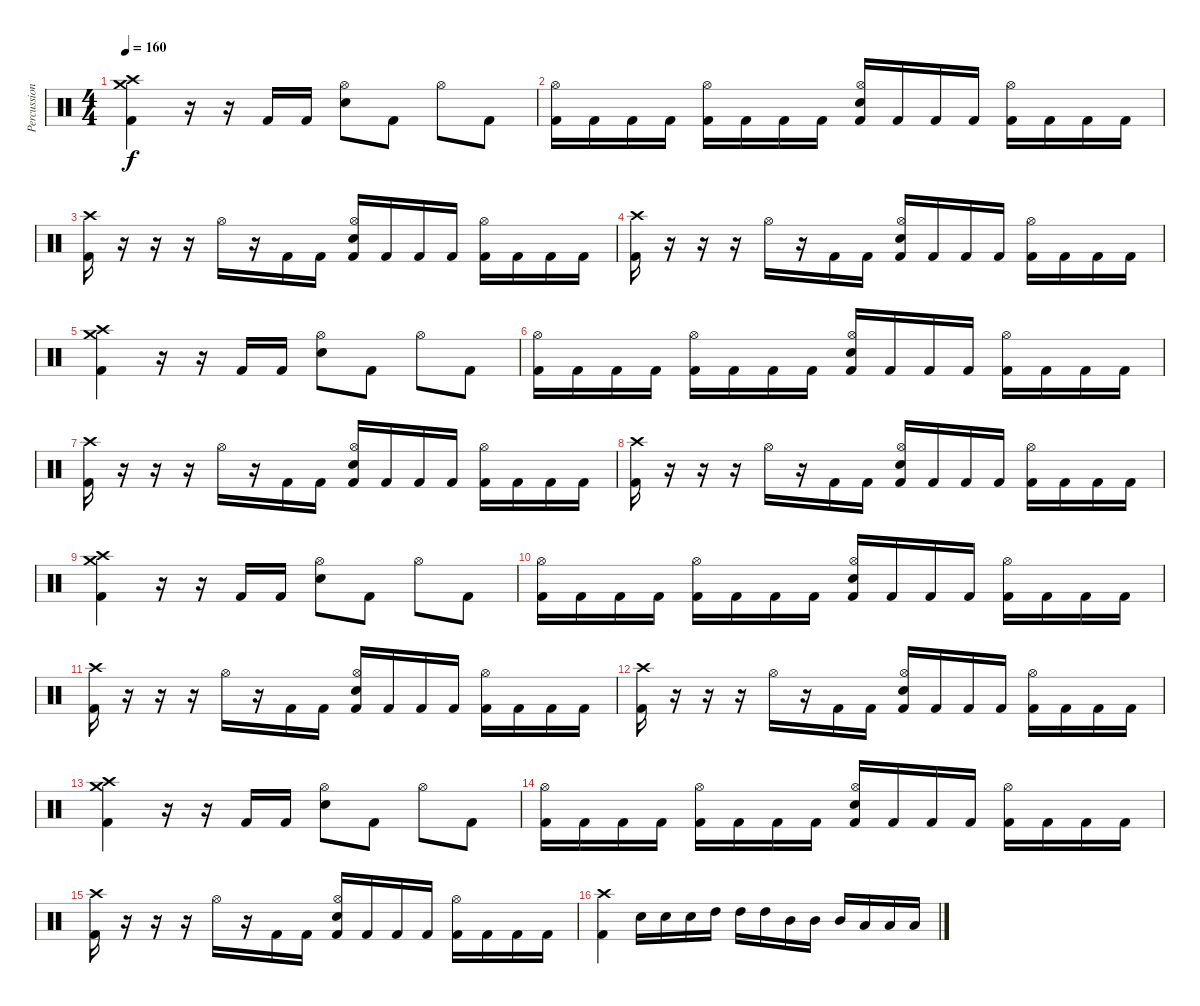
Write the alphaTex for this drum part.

\track ("Percussions" "Percussion") {instrument percussion}
\staff {score}
\articulation defaults
\ts (4 4)
\tempo 160
\clef neutral
\ks c
("Crash medium (hit)" "Crash high (hit)" "Kick (hit) 2").4{dy f} r.16 r.16 "Kick (hit) 2".16 "Kick (hit) 2".16 ("Hi-Hat (open)" "Electric Snare (hit)").8 "Kick (hit) 2".8 "Hi-Hat (open)".8 "Kick (hit) 2".8 |
("Hi-Hat (open)" "Kick (hit) 2").16 "Kick (hit) 2".16 "Kick (hit) 2".16 "Kick (hit) 2".16 ("Hi-Hat (open)" "Kick (hit) 2").16 "Kick (hit) 2".16 "Kick (hit) 2".16 "Kick (hit) 2".16 ("Hi-Hat (open)" "Electric Snare (hit)" "Kick (hit) 2").16 "Kick (hit) 2".16 "Kick (hit) 2".16 "Kick (hit) 2".16 ("Hi-Hat (open)" "Kick (hit) 2").16 "Kick (hit) 2".16 "Kick (hit) 2".16 "Kick (hit) 2".16 |
("Crash high (hit)" "Kick (hit) 2").16 r.16 r.16 r.16 "Hi-Hat (open)".16 r.16 "Kick (hit) 2".16 "Kick (hit) 2".16 ("Hi-Hat (open)" "Electric Snare (hit)" "Kick (hit) 2").16 "Kick (hit) 2".16 "Kick (hit) 2".16 "Kick (hit) 2".16 ("Hi-Hat (open)" "Kick (hit) 2").16 "Kick (hit) 2".16 "Kick (hit) 2".16 "Kick (hit) 2".16 |
("Crash high (hit)" "Kick (hit) 2").16 r.16 r.16 r.16 "Hi-Hat (open)".16 r.16 "Kick (hit) 2".16 "Kick (hit) 2".16 ("Hi-Hat (open)" "Electric Snare (hit)" "Kick (hit) 2").16 "Kick (hit) 2".16 "Kick (hit) 2".16 "Kick (hit) 2".16 ("Hi-Hat (open)" "Kick (hit) 2").16 "Kick (hit) 2".16 "Kick (hit) 2".16 "Kick (hit) 2".16 |
("Crash medium (hit)" "Crash high (hit)" "Kick (hit) 2").4 r.16 r.16 "Kick (hit) 2".16 "Kick (hit) 2".16 ("Hi-Hat (open)" "Electric Snare (hit)").8 "Kick (hit) 2".8 "Hi-Hat (open)".8 "Kick (hit) 2".8 |
("Hi-Hat (open)" "Kick (hit) 2").16 "Kick (hit) 2".16 "Kick (hit) 2".16 "Kick (hit) 2".16 ("Hi-Hat (open)" "Kick (hit) 2").16 "Kick (hit) 2".16 "Kick (hit) 2".16 "Kick (hit) 2".16 ("Hi-Hat (open)" "Electric Snare (hit)" "Kick (hit) 2").16 "Kick (hit) 2".16 "Kick (hit) 2".16 "Kick (hit) 2".16 ("Hi-Hat (open)" "Kick (hit) 2").16 "Kick (hit) 2".16 "Kick (hit) 2".16 "Kick (hit) 2".16 |
("Crash high (hit)" "Kick (hit) 2").16 r.16 r.16 r.16 "Hi-Hat (open)".16 r.16 "Kick (hit) 2".16 "Kick (hit) 2".16 ("Hi-Hat (open)" "Electric Snare (hit)" "Kick (hit) 2").16 "Kick (hit) 2".16 "Kick (hit) 2".16 "Kick (hit) 2".16 ("Hi-Hat (open)" "Kick (hit) 2").16 "Kick (hit) 2".16 "Kick (hit) 2".16 "Kick (hit) 2".16 |
("Crash high (hit)" "Kick (hit) 2").16 r.16 r.16 r.16 "Hi-Hat (open)".16 r.16 "Kick (hit) 2".16 "Kick (hit) 2".16 ("Hi-Hat (open)" "Electric Snare (hit)" "Kick (hit) 2").16 "Kick (hit) 2".16 "Kick (hit) 2".16 "Kick (hit) 2".16 ("Hi-Hat (open)" "Kick (hit) 2").16 "Kick (hit) 2".16 "Kick (hit) 2".16 "Kick (hit) 2".16 |
("Crash medium (hit)" "Crash high (hit)" "Kick (hit) 2").4 r.16 r.16 "Kick (hit) 2".16 "Kick (hit) 2".16 ("Hi-Hat (open)" "Electric Snare (hit)").8 "Kick (hit) 2".8 "Hi-Hat (open)".8 "Kick (hit) 2".8 |
("Hi-Hat (open)" "Kick (hit) 2").16 "Kick (hit) 2".16 "Kick (hit) 2".16 "Kick (hit) 2".16 ("Hi-Hat (open)" "Kick (hit) 2").16 "Kick (hit) 2".16 "Kick (hit) 2".16 "Kick (hit) 2".16 ("Hi-Hat (open)" "Electric Snare (hit)" "Kick (hit) 2").16 "Kick (hit) 2".16 "Kick (hit) 2".16 "Kick (hit) 2".16 ("Hi-Hat (open)" "Kick (hit) 2").16 "Kick (hit) 2".16 "Kick (hit) 2".16 "Kick (hit) 2".16 |
("Crash high (hit)" "Kick (hit) 2").16 r.16 r.16 r.16 "Hi-Hat (open)".16 r.16 "Kick (hit) 2".16 "Kick (hit) 2".16 ("Hi-Hat (open)" "Electric Snare (hit)" "Kick (hit) 2").16 "Kick (hit) 2".16 "Kick (hit) 2".16 "Kick (hit) 2".16 ("Hi-Hat (open)" "Kick (hit) 2").16 "Kick (hit) 2".16 "Kick (hit) 2".16 "Kick (hit) 2".16 |
("Crash high (hit)" "Kick (hit) 2").16 r.16 r.16 r.16 "Hi-Hat (open)".16 r.16 "Kick (hit) 2".16 "Kick (hit) 2".16 ("Hi-Hat (open)" "Electric Snare (hit)" "Kick (hit) 2").16 "Kick (hit) 2".16 "Kick (hit) 2".16 "Kick (hit) 2".16 ("Hi-Hat (open)" "Kick (hit) 2").16 "Kick (hit) 2".16 "Kick (hit) 2".16 "Kick (hit) 2".16 |
("Crash medium (hit)" "Crash high (hit)" "Kick (hit) 2").4 r.16 r.16 "Kick (hit) 2".16 "Kick (hit) 2".16 ("Hi-Hat (open)" "Electric Snare (hit)").8 "Kick (hit) 2".8 "Hi-Hat (open)".8 "Kick (hit) 2".8 |
("Hi-Hat (open)" "Kick (hit) 2").16 "Kick (hit) 2".16 "Kick (hit) 2".16 "Kick (hit) 2".16 ("Hi-Hat (open)" "Kick (hit) 2").16 "Kick (hit) 2".16 "Kick (hit) 2".16 "Kick (hit) 2".16 ("Hi-Hat (open)" "Electric Snare (hit)" "Kick (hit) 2").16 "Kick (hit) 2".16 "Kick (hit) 2".16 "Kick (hit) 2".16 ("Hi-Hat (open)" "Kick (hit) 2").16 "Kick (hit) 2".16 "Kick (hit) 2".16 "Kick (hit) 2".16 |
("Crash high (hit)" "Kick (hit) 2").16 r.16 r.16 r.16 "Hi-Hat (open)".16 r.16 "Kick (hit) 2".16 "Kick (hit) 2".16 ("Hi-Hat (open)" "Electric Snare (hit)" "Kick (hit) 2").16 "Kick (hit) 2".16 "Kick (hit) 2".16 "Kick (hit) 2".16 ("Hi-Hat (open)" "Kick (hit) 2").16 "Kick (hit) 2".16 "Kick (hit) 2".16 "Kick (hit) 2".16 |
("Crash high (hit)" "Kick (hit) 2").4 "Electric Snare (hit)".16 "Electric Snare (hit)".16 "Electric Snare (hit)".16 "High Tom (hit)".16 "High Tom (hit)".16 "High Tom (hit)".16 "Mid Tom (hit)".16 "Mid Tom (hit)".16 "Mid Tom (hit)".16 "Low Tom (hit)".16 "Low Tom (hit)".16 "Low Tom (hit)".16
